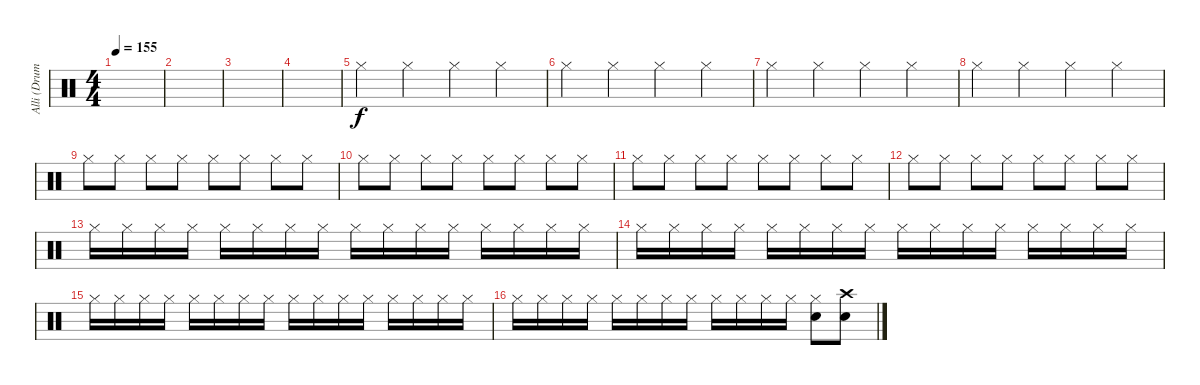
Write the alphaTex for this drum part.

\track ("Alli (Drums)" "Alli (Drum") {instrument percussion}
\staff {score}
\articulation defaults
\ts (4 4)
\tempo 155
\clef neutral
\ks c
|
|
|
|
"Hi-Hat (closed)".4 "Hi-Hat (closed)".4 "Hi-Hat (closed)".4 "Hi-Hat (closed)".4 |
"Hi-Hat (closed)".4 "Hi-Hat (closed)".4 "Hi-Hat (closed)".4 "Hi-Hat (closed)".4 |
"Hi-Hat (closed)".4 "Hi-Hat (closed)".4 "Hi-Hat (closed)".4 "Hi-Hat (closed)".4 |
"Hi-Hat (closed)".4 "Hi-Hat (closed)".4 "Hi-Hat (closed)".4 "Hi-Hat (closed)".4 |
"Hi-Hat (closed)".8 "Hi-Hat (closed)".8 "Hi-Hat (closed)".8 "Hi-Hat (closed)".8 "Hi-Hat (closed)".8 "Hi-Hat (closed)".8 "Hi-Hat (closed)".8 "Hi-Hat (closed)".8 |
"Hi-Hat (closed)".8 "Hi-Hat (closed)".8 "Hi-Hat (closed)".8 "Hi-Hat (closed)".8 "Hi-Hat (closed)".8 "Hi-Hat (closed)".8 "Hi-Hat (closed)".8 "Hi-Hat (closed)".8 |
"Hi-Hat (closed)".8 "Hi-Hat (closed)".8 "Hi-Hat (closed)".8 "Hi-Hat (closed)".8 "Hi-Hat (closed)".8 "Hi-Hat (closed)".8 "Hi-Hat (closed)".8 "Hi-Hat (closed)".8 |
"Hi-Hat (closed)".8 "Hi-Hat (closed)".8 "Hi-Hat (closed)".8 "Hi-Hat (closed)".8 "Hi-Hat (closed)".8 "Hi-Hat (closed)".8 "Hi-Hat (closed)".8 "Hi-Hat (closed)".8 |
"Hi-Hat (closed)".16 "Hi-Hat (closed)".16 "Hi-Hat (closed)".16 "Hi-Hat (closed)".16 "Hi-Hat (closed)".16 "Hi-Hat (closed)".16 "Hi-Hat (closed)".16 "Hi-Hat (closed)".16 "Hi-Hat (closed)".16 "Hi-Hat (closed)".16 "Hi-Hat (closed)".16 "Hi-Hat (closed)".16 "Hi-Hat (closed)".16 "Hi-Hat (closed)".16 "Hi-Hat (closed)".16 "Hi-Hat (closed)".16 |
"Hi-Hat (closed)".16 "Hi-Hat (closed)".16 "Hi-Hat (closed)".16 "Hi-Hat (closed)".16 "Hi-Hat (closed)".16 "Hi-Hat (closed)".16 "Hi-Hat (closed)".16 "Hi-Hat (closed)".16 "Hi-Hat (closed)".16 "Hi-Hat (closed)".16 "Hi-Hat (closed)".16 "Hi-Hat (closed)".16 "Hi-Hat (closed)".16 "Hi-Hat (closed)".16 "Hi-Hat (closed)".16 "Hi-Hat (closed)".16 |
"Hi-Hat (closed)".16 "Hi-Hat (closed)".16 "Hi-Hat (closed)".16 "Hi-Hat (closed)".16 "Hi-Hat (closed)".16 "Hi-Hat (closed)".16 "Hi-Hat (closed)".16 "Hi-Hat (closed)".16 "Hi-Hat (closed)".16 "Hi-Hat (closed)".16 "Hi-Hat (closed)".16 "Hi-Hat (closed)".16 "Hi-Hat (closed)".16 "Hi-Hat (closed)".16 "Hi-Hat (closed)".16 "Hi-Hat (closed)".16 |
"Hi-Hat (closed)".16 "Hi-Hat (closed)".16 "Hi-Hat (closed)".16 "Hi-Hat (closed)".16 "Hi-Hat (closed)".16 "Hi-Hat (closed)".16 "Hi-Hat (closed)".16 "Hi-Hat (closed)".16 "Hi-Hat (closed)".16 "Hi-Hat (closed)".16 "Hi-Hat (closed)".16 "Hi-Hat (closed)".16 ("Hi-Hat (closed)" "Snare (hit) 2").8 ("Crash high (hit)" "Electric Snare (hit)").8
